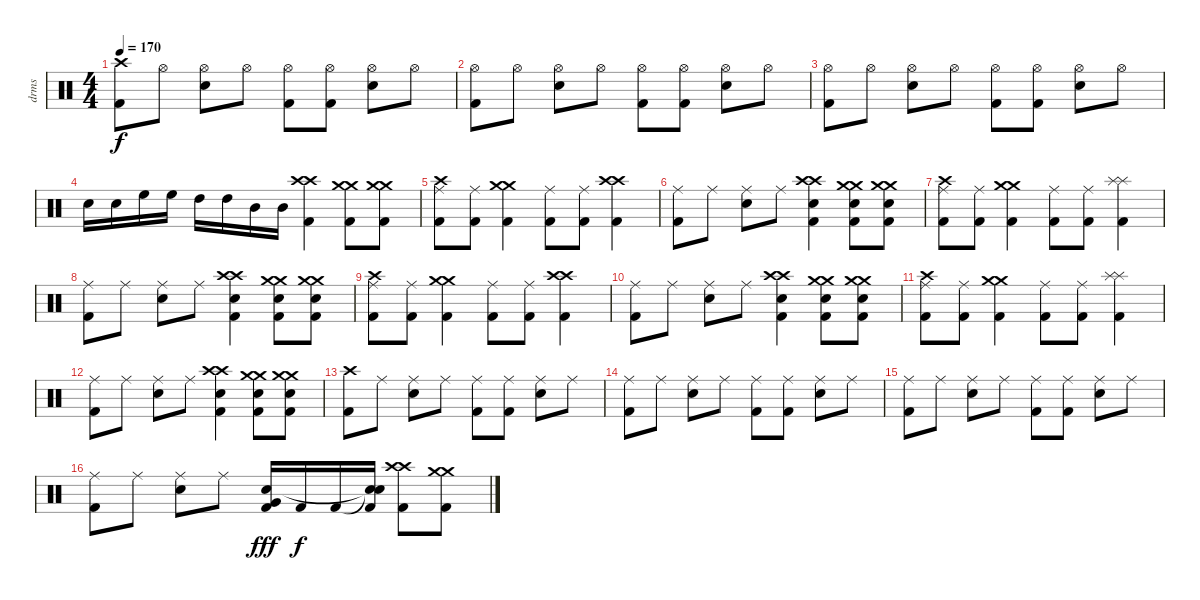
\track ("drms" "drms") {instrument percussion}
\staff {score}
\articulation defaults
\ts (4 4)
\tempo 170
\clef neutral
\ks c
("Crash high (hit)" "Kick (hit) 2").8{dy f} "Hi-Hat (open)".8 ("Hi-Hat (open)" "Snare (hit) 2").8 "Hi-Hat (open)".8 ("Hi-Hat (open)" "Kick (hit) 2").8 ("Hi-Hat (open)" "Kick (hit) 2").8 ("Hi-Hat (open)" "Snare (hit) 2").8 "Hi-Hat (open)".8 |
("Hi-Hat (open)" "Kick (hit) 2").8 "Hi-Hat (open)".8 ("Hi-Hat (open)" "Snare (hit) 2").8 "Hi-Hat (open)".8 ("Hi-Hat (open)" "Kick (hit) 2").8 ("Hi-Hat (open)" "Kick (hit) 2").8 ("Hi-Hat (open)" "Snare (hit) 2").8 "Hi-Hat (open)".8 |
("Hi-Hat (open)" "Kick (hit) 2").8 "Hi-Hat (open)".8 ("Hi-Hat (open)" "Snare (hit) 2").8 "Hi-Hat (open)".8 ("Hi-Hat (open)" "Kick (hit) 2").8 ("Hi-Hat (open)" "Kick (hit) 2").8 ("Hi-Hat (open)" "Snare (hit) 2").8 "Hi-Hat (open)".8 |
"Snare (hit) 2".16 "Snare (hit) 2".16 "High Floor Tom (hit)".16 "High Floor Tom (hit)".16 "High Tom (hit)".16 "High Tom (hit)".16 "Mid Tom (hit)".16 "Mid Tom (hit)".16 ("Crash high (hit)" "Crash high (hit)" "Kick (hit) 2").4 ("Crash medium (hit)" "Crash medium (hit)" "Kick (hit) 2").8 ("Crash medium (hit)" "Crash medium (hit)" "Kick (hit) 2").8 |
("Crash high (hit)" "Ride (middle)" "Kick (hit) 2").8 ("Ride (middle)" "Kick (hit) 2").8 ("Crash medium (hit)" "Crash medium (hit)" "Kick (hit) 2").4 ("Ride (middle)" "Kick (hit) 2").8 ("Ride (middle)" "Kick (hit) 2").8 ("Crash high (hit)" "Crash high (hit)" "Kick (hit) 2").4 |
("Ride (middle)" "Kick (hit) 2").8 "Ride (middle)".8 ("Ride (middle)" "Snare (hit) 2").8 "Ride (middle)".8 ("Crash high (hit)" "Crash high (hit)" "Snare (hit) 2" "Kick (hit) 2").4 ("Crash medium (hit)" "Crash medium (hit)" "Snare (hit) 2" "Kick (hit) 2").8 ("Crash medium (hit)" "Crash medium (hit)" "Snare (hit) 2" "Kick (hit) 2").8 |
("Crash high (hit)" "Ride (middle)" "Kick (hit) 2").8 ("Ride (middle)" "Kick (hit) 2").8 ("Crash medium (hit)" "Crash medium (hit)" "Kick (hit) 2").4 ("Ride (middle)" "Kick (hit) 2").8 ("Ride (middle)" "Kick (hit) 2").8 ("Splash (hit)" "Splash (hit)" "Kick (hit) 2").4 |
("Ride (middle)" "Kick (hit) 2").8 "Ride (middle)".8 ("Ride (middle)" "Snare (hit) 2").8 "Ride (middle)".8 ("Crash high (hit)" "Crash high (hit)" "Snare (hit) 2" "Kick (hit) 2").4 ("Crash medium (hit)" "Crash medium (hit)" "Snare (hit) 2" "Kick (hit) 2").8 ("Crash medium (hit)" "Crash medium (hit)" "Snare (hit) 2" "Kick (hit) 2").8 |
("Crash high (hit)" "Ride (middle)" "Kick (hit) 2").8 ("Ride (middle)" "Kick (hit) 2").8 ("Crash medium (hit)" "Crash medium (hit)" "Kick (hit) 2").4 ("Ride (middle)" "Kick (hit) 2").8 ("Ride (middle)" "Kick (hit) 2").8 ("Crash high (hit)" "Crash high (hit)" "Kick (hit) 2").4 |
("Ride (middle)" "Kick (hit) 2").8 "Ride (middle)".8 ("Ride (middle)" "Snare (hit) 2").8 "Ride (middle)".8 ("Crash high (hit)" "Crash high (hit)" "Snare (hit) 2" "Kick (hit) 2").4 ("Crash medium (hit)" "Crash medium (hit)" "Snare (hit) 2" "Kick (hit) 2").8 ("Crash medium (hit)" "Crash medium (hit)" "Snare (hit) 2" "Kick (hit) 2").8 |
("Crash high (hit)" "Ride (middle)" "Kick (hit) 2").8 ("Ride (middle)" "Kick (hit) 2").8 ("Crash medium (hit)" "Crash medium (hit)" "Kick (hit) 2").4 ("Ride (middle)" "Kick (hit) 2").8 ("Ride (middle)" "Kick (hit) 2").8 ("Splash (hit)" "Splash (hit)" "Kick (hit) 2").4 |
("Ride (middle)" "Kick (hit) 2").8 "Ride (middle)".8 ("Ride (middle)" "Snare (hit) 2").8 "Ride (middle)".8 ("Crash high (hit)" "Crash high (hit)" "Snare (hit) 2" "Kick (hit) 2").4 ("Crash medium (hit)" "Crash medium (hit)" "Snare (hit) 2" "Kick (hit) 2").8 ("Crash medium (hit)" "Crash medium (hit)" "Snare (hit) 2" "Kick (hit) 2").8 |
("Crash high (hit)" "Kick (hit) 2").8 "Ride (middle)".8 ("Ride (middle)" "Snare (hit) 2").8 "Ride (middle)".8 ("Ride (middle)" "Kick (hit) 2").8 ("Ride (middle)" "Kick (hit) 2").8 ("Ride (middle)" "Snare (hit) 2").8 "Ride (middle)".8 |
("Ride (middle)" "Kick (hit) 2").8 "Ride (middle)".8 ("Ride (middle)" "Snare (hit) 2").8 "Ride (middle)".8 ("Ride (middle)" "Kick (hit) 2").8 ("Ride (middle)" "Kick (hit) 2").8 ("Ride (middle)" "Snare (hit) 2").8 "Ride (middle)".8 |
("Ride (middle)" "Kick (hit) 2").8 "Ride (middle)".8 ("Ride (middle)" "Snare (hit) 2").8 "Ride (middle)".8 ("Ride (middle)" "Kick (hit) 2").8 ("Ride (middle)" "Kick (hit) 2").8 ("Ride (middle)" "Snare (hit) 2").8 "Ride (middle)".8 |
("Ride (middle)" "Kick (hit) 2").8 "Ride (middle)".8 ("Ride (middle)" "Snare (hit) 2").8 "Ride (middle)".8 ("Very Low Tom (hit)" "Snare (hit) 2" "Kick (hit) 2").16{dy fff} "Kick (hit) 2".16{dy f} "Kick (hit) 2".16 ("Snare (hit)"{t} "Snare (hit)"{t} "Kick (hit) 2").16 ("Crash high (hit)" "Crash high (hit)" "Kick (hit) 2").8 ("Crash medium (hit)" "Crash medium (hit)" "Kick (hit) 2").8
